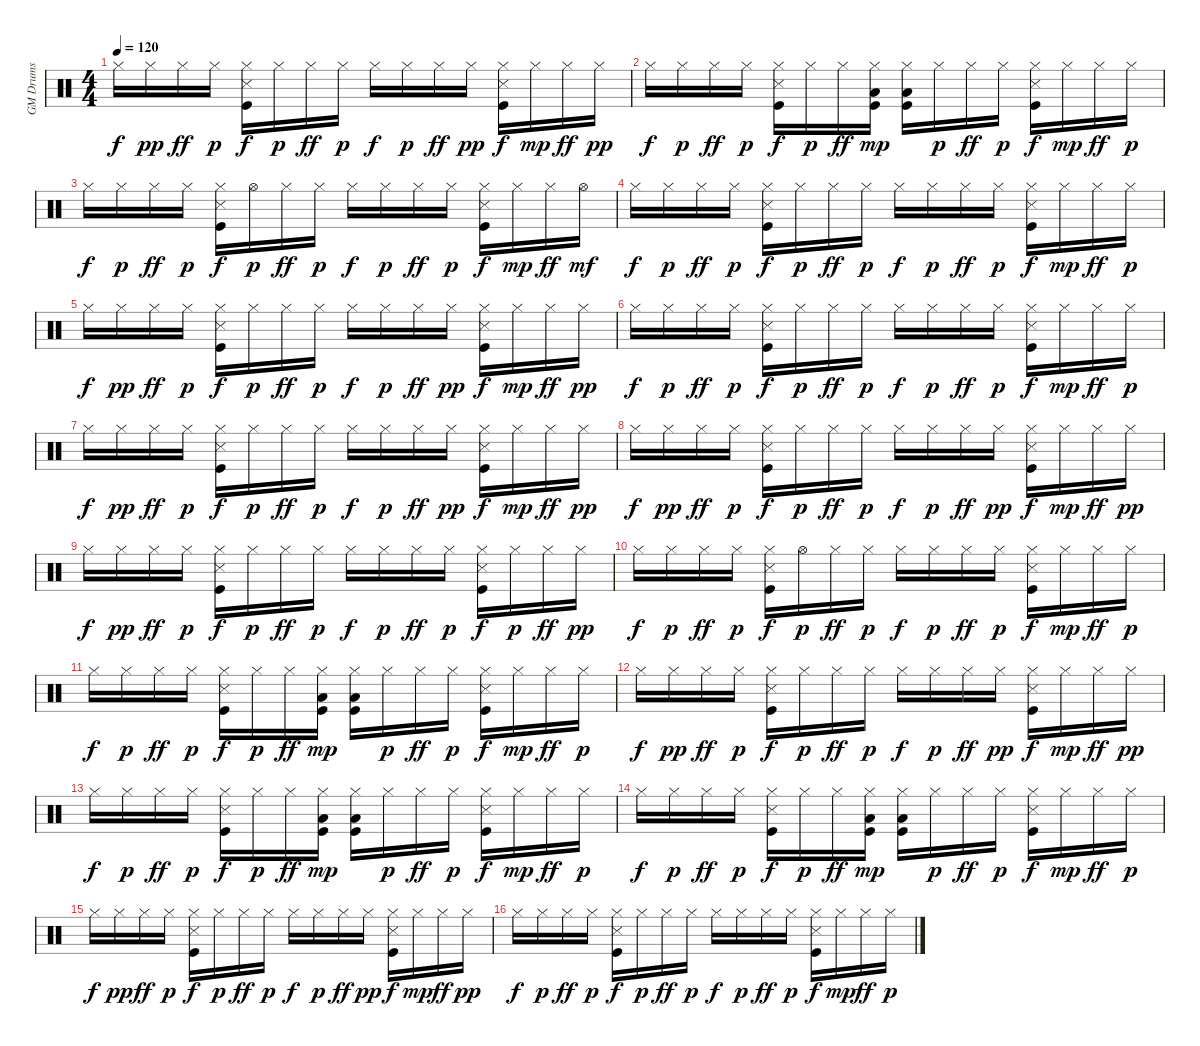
\track ("GM Drums" "GM Drums") {instrument percussion}
\staff {score}
\articulation defaults
\ts (4 4)
\tempo 120
\clef neutral
\ks c "Hi-Hat (closed)".16{dy f} "Hi-Hat (closed)".16{dy pp} "Hi-Hat (closed)".16{dy ff} "Hi-Hat (closed)".16{dy p}
("Kick (hit)" "Snare (side stick) 3" "Hi-Hat (closed)").16{dy f} "Hi-Hat (closed)".16{dy p} "Hi-Hat (closed)".16{dy ff} "Hi-Hat (closed)".16{dy p} "Hi-Hat (closed)".16{dy f} "Hi-Hat (closed)".16{dy p} "Hi-Hat (closed)".16{dy ff} "Hi-Hat (closed)".16{dy pp} ("Kick (hit)" "Snare (side stick) 3" "Hi-Hat (closed)").16{dy f} "Hi-Hat (closed)".16{dy mp} "Hi-Hat (closed)".16{dy ff} "Hi-Hat (closed)".16{dy pp} |
"Hi-Hat (closed)".16{dy f} "Hi-Hat (closed)".16{dy p} "Hi-Hat (closed)".16{dy ff} "Hi-Hat (closed)".16{dy p} ("Kick (hit)" "Snare (side stick) 3" "Hi-Hat (closed)").16{dy f} "Hi-Hat (closed)".16{dy p} "Hi-Hat (closed)".16{dy ff} ("Kick (hit)" "Hi-Hat (closed)" "Low Tom (hit)").16{dy mp} ("Kick (hit)" "Hi-Hat (closed)" "Low Tom (hit)").16 "Hi-Hat (closed)".16{dy p} "Hi-Hat (closed)".16{dy ff} "Hi-Hat (closed)".16{dy p} ("Kick (hit)" "Snare (side stick) 3" "Hi-Hat (closed)").16{dy f} "Hi-Hat (closed)".16{dy mp} "Hi-Hat (closed)".16{dy ff} "Hi-Hat (closed)".16{dy p} |
"Hi-Hat (closed)".16{dy f} "Hi-Hat (closed)".16{dy p} "Hi-Hat (closed)".16{dy ff} "Hi-Hat (closed)".16{dy p} ("Kick (hit)" "Snare (side stick) 3" "Hi-Hat (closed)").16{dy f} "Hi-Hat (open)".16{dy p} "Hi-Hat (closed)".16{dy ff} "Hi-Hat (closed)".16{dy p} "Hi-Hat (closed)".16{dy f} "Hi-Hat (closed)".16{dy p} "Hi-Hat (closed)".16{dy ff} "Hi-Hat (closed)".16{dy p} ("Kick (hit)" "Snare (side stick) 3" "Hi-Hat (closed)").16{dy f} "Hi-Hat (closed)".16{dy mp} "Hi-Hat (closed)".16{dy ff} "Hi-Hat (open)".16{dy mf} |
"Hi-Hat (closed)".16{dy f} "Hi-Hat (closed)".16{dy p} "Hi-Hat (closed)".16{dy ff} "Hi-Hat (closed)".16{dy p} ("Kick (hit)" "Snare (side stick) 3" "Hi-Hat (closed)").16{dy f} "Hi-Hat (closed)".16{dy p} "Hi-Hat (closed)".16{dy ff} "Hi-Hat (closed)".16{dy p} "Hi-Hat (closed)".16{dy f} "Hi-Hat (closed)".16{dy p} "Hi-Hat (closed)".16{dy ff} "Hi-Hat (closed)".16{dy p} ("Kick (hit)" "Snare (side stick) 3" "Hi-Hat (closed)").16{dy f} "Hi-Hat (closed)".16{dy mp} "Hi-Hat (closed)".16{dy ff} "Hi-Hat (closed)".16{dy p} |
"Hi-Hat (closed)".16{dy f} "Hi-Hat (closed)".16{dy pp} "Hi-Hat (closed)".16{dy ff} "Hi-Hat (closed)".16{dy p} ("Kick (hit)" "Snare (side stick) 3" "Hi-Hat (closed)").16{dy f} "Hi-Hat (closed)".16{dy p} "Hi-Hat (closed)".16{dy ff} "Hi-Hat (closed)".16{dy p} "Hi-Hat (closed)".16{dy f} "Hi-Hat (closed)".16{dy p} "Hi-Hat (closed)".16{dy ff} "Hi-Hat (closed)".16{dy pp} ("Kick (hit)" "Snare (side stick) 3" "Hi-Hat (closed)").16{dy f} "Hi-Hat (closed)".16{dy mp} "Hi-Hat (closed)".16{dy ff} "Hi-Hat (closed)".16{dy pp} |
"Hi-Hat (closed)".16{dy f} "Hi-Hat (closed)".16{dy p} "Hi-Hat (closed)".16{dy ff} "Hi-Hat (closed)".16{dy p} ("Kick (hit)" "Snare (side stick) 3" "Hi-Hat (closed)").16{dy f} "Hi-Hat (closed)".16{dy p} "Hi-Hat (closed)".16{dy ff} "Hi-Hat (closed)".16{dy p} "Hi-Hat (closed)".16{dy f} "Hi-Hat (closed)".16{dy p} "Hi-Hat (closed)".16{dy ff} "Hi-Hat (closed)".16{dy p} ("Kick (hit)" "Snare (side stick) 3" "Hi-Hat (closed)").16{dy f} "Hi-Hat (closed)".16{dy mp} "Hi-Hat (closed)".16{dy ff} "Hi-Hat (closed)".16{dy p} |
"Hi-Hat (closed)".16{dy f} "Hi-Hat (closed)".16{dy pp} "Hi-Hat (closed)".16{dy ff} "Hi-Hat (closed)".16{dy p} ("Kick (hit)" "Snare (side stick) 3" "Hi-Hat (closed)").16{dy f} "Hi-Hat (closed)".16{dy p} "Hi-Hat (closed)".16{dy ff} "Hi-Hat (closed)".16{dy p} "Hi-Hat (closed)".16{dy f} "Hi-Hat (closed)".16{dy p} "Hi-Hat (closed)".16{dy ff} "Hi-Hat (closed)".16{dy pp} ("Kick (hit)" "Snare (side stick) 3" "Hi-Hat (closed)").16{dy f} "Hi-Hat (closed)".16{dy mp} "Hi-Hat (closed)".16{dy ff} "Hi-Hat (closed)".16{dy pp} |
"Hi-Hat (closed)".16{dy f} "Hi-Hat (closed)".16{dy pp} "Hi-Hat (closed)".16{dy ff} "Hi-Hat (closed)".16{dy p} ("Kick (hit)" "Snare (side stick) 3" "Hi-Hat (closed)").16{dy f} "Hi-Hat (closed)".16{dy p} "Hi-Hat (closed)".16{dy ff} "Hi-Hat (closed)".16{dy p} "Hi-Hat (closed)".16{dy f} "Hi-Hat (closed)".16{dy p} "Hi-Hat (closed)".16{dy ff} "Hi-Hat (closed)".16{dy pp} ("Kick (hit)" "Snare (side stick) 3" "Hi-Hat (closed)").16{dy f} "Hi-Hat (closed)".16{dy mp} "Hi-Hat (closed)".16{dy ff} "Hi-Hat (closed)".16{dy pp} |
"Hi-Hat (closed)".16{dy f} "Hi-Hat (closed)".16{dy pp} "Hi-Hat (closed)".16{dy ff} "Hi-Hat (closed)".16{dy p} ("Kick (hit)" "Snare (side stick) 3" "Hi-Hat (closed)").16{dy f} "Hi-Hat (closed)".16{dy p} "Hi-Hat (closed)".16{dy ff} "Hi-Hat (closed)".16{dy p} "Hi-Hat (closed)".16{dy f} "Hi-Hat (closed)".16{dy p} "Hi-Hat (closed)".16{dy ff} "Hi-Hat (closed)".16{dy p} ("Kick (hit)" "Snare (side stick) 3" "Hi-Hat (closed)").16{dy f} "Hi-Hat (closed)".16{dy p} "Hi-Hat (closed)".16{dy ff} "Hi-Hat (closed)".16{dy pp} |
"Hi-Hat (closed)".16{dy f} "Hi-Hat (closed)".16{dy p} "Hi-Hat (closed)".16{dy ff} "Hi-Hat (closed)".16{dy p} ("Kick (hit)" "Snare (side stick) 3" "Hi-Hat (closed)").16{dy f} "Hi-Hat (open)".16{dy p} "Hi-Hat (closed)".16{dy ff} "Hi-Hat (closed)".16{dy p} "Hi-Hat (closed)".16{dy f} "Hi-Hat (closed)".16{dy p} "Hi-Hat (closed)".16{dy ff} "Hi-Hat (closed)".16{dy p} ("Kick (hit)" "Snare (side stick) 3" "Hi-Hat (closed)").16{dy f} "Hi-Hat (closed)".16{dy mp} "Hi-Hat (closed)".16{dy ff} "Hi-Hat (closed)".16{dy p} |
"Hi-Hat (closed)".16{dy f} "Hi-Hat (closed)".16{dy p} "Hi-Hat (closed)".16{dy ff} "Hi-Hat (closed)".16{dy p} ("Kick (hit)" "Snare (side stick) 3" "Hi-Hat (closed)").16{dy f} "Hi-Hat (closed)".16{dy p} "Hi-Hat (closed)".16{dy ff} ("Kick (hit)" "Hi-Hat (closed)" "Low Tom (hit)").16{dy mp} ("Kick (hit)" "Hi-Hat (closed)" "Low Tom (hit)").16 "Hi-Hat (closed)".16{dy p} "Hi-Hat (closed)".16{dy ff} "Hi-Hat (closed)".16{dy p} ("Kick (hit)" "Snare (side stick) 3" "Hi-Hat (closed)").16{dy f} "Hi-Hat (closed)".16{dy mp} "Hi-Hat (closed)".16{dy ff} "Hi-Hat (closed)".16{dy p} |
"Hi-Hat (closed)".16{dy f} "Hi-Hat (closed)".16{dy pp} "Hi-Hat (closed)".16{dy ff} "Hi-Hat (closed)".16{dy p} ("Kick (hit)" "Snare (side stick) 3" "Hi-Hat (closed)").16{dy f} "Hi-Hat (closed)".16{dy p} "Hi-Hat (closed)".16{dy ff} "Hi-Hat (closed)".16{dy p} "Hi-Hat (closed)".16{dy f} "Hi-Hat (closed)".16{dy p} "Hi-Hat (closed)".16{dy ff} "Hi-Hat (closed)".16{dy pp} ("Kick (hit)" "Snare (side stick) 3" "Hi-Hat (closed)").16{dy f} "Hi-Hat (closed)".16{dy mp} "Hi-Hat (closed)".16{dy ff} "Hi-Hat (closed)".16{dy pp} |
"Hi-Hat (closed)".16{dy f} "Hi-Hat (closed)".16{dy p} "Hi-Hat (closed)".16{dy ff} "Hi-Hat (closed)".16{dy p} ("Kick (hit)" "Snare (side stick) 3" "Hi-Hat (closed)").16{dy f} "Hi-Hat (closed)".16{dy p} "Hi-Hat (closed)".16{dy ff} ("Kick (hit)" "Hi-Hat (closed)" "Low Tom (hit)").16{dy mp} ("Kick (hit)" "Hi-Hat (closed)" "Low Tom (hit)").16 "Hi-Hat (closed)".16{dy p} "Hi-Hat (closed)".16{dy ff} "Hi-Hat (closed)".16{dy p} ("Kick (hit)" "Snare (side stick) 3" "Hi-Hat (closed)").16{dy f} "Hi-Hat (closed)".16{dy mp} "Hi-Hat (closed)".16{dy ff} "Hi-Hat (closed)".16{dy p} |
"Hi-Hat (closed)".16{dy f} "Hi-Hat (closed)".16{dy p} "Hi-Hat (closed)".16{dy ff} "Hi-Hat (closed)".16{dy p} ("Kick (hit)" "Snare (side stick) 3" "Hi-Hat (closed)").16{dy f} "Hi-Hat (closed)".16{dy p} "Hi-Hat (closed)".16{dy ff} ("Kick (hit)" "Hi-Hat (closed)" "Low Tom (hit)").16{dy mp} ("Kick (hit)" "Hi-Hat (closed)" "Low Tom (hit)").16 "Hi-Hat (closed)".16{dy p} "Hi-Hat (closed)".16{dy ff} "Hi-Hat (closed)".16{dy p} ("Kick (hit)" "Snare (side stick) 3" "Hi-Hat (closed)").16{dy f} "Hi-Hat (closed)".16{dy mp} "Hi-Hat (closed)".16{dy ff} "Hi-Hat (closed)".16{dy p} |
"Hi-Hat (closed)".16{dy f} "Hi-Hat (closed)".16{dy pp} "Hi-Hat (closed)".16{dy ff} "Hi-Hat (closed)".16{dy p} ("Kick (hit)" "Snare (side stick) 3" "Hi-Hat (closed)").16{dy f} "Hi-Hat (closed)".16{dy p} "Hi-Hat (closed)".16{dy ff} "Hi-Hat (closed)".16{dy p} "Hi-Hat (closed)".16{dy f} "Hi-Hat (closed)".16{dy p} "Hi-Hat (closed)".16{dy ff} "Hi-Hat (closed)".16{dy pp} ("Kick (hit)" "Snare (side stick) 3" "Hi-Hat (closed)").16{dy f} "Hi-Hat (closed)".16{dy mp} "Hi-Hat (closed)".16{dy ff} "Hi-Hat (closed)".16{dy pp} |
"Hi-Hat (closed)".16{dy f} "Hi-Hat (closed)".16{dy p} "Hi-Hat (closed)".16{dy ff} "Hi-Hat (closed)".16{dy p} ("Kick (hit)" "Snare (side stick) 3" "Hi-Hat (closed)").16{dy f} "Hi-Hat (closed)".16{dy p} "Hi-Hat (closed)".16{dy ff} "Hi-Hat (closed)".16{dy p} "Hi-Hat (closed)".16{dy f} "Hi-Hat (closed)".16{dy p} "Hi-Hat (closed)".16{dy ff} "Hi-Hat (closed)".16{dy p} ("Kick (hit)" "Snare (side stick) 3" "Hi-Hat (closed)").16{dy f} "Hi-Hat (closed)".16{dy mp} "Hi-Hat (closed)".16{dy ff} "Hi-Hat (closed)".16{dy p}
